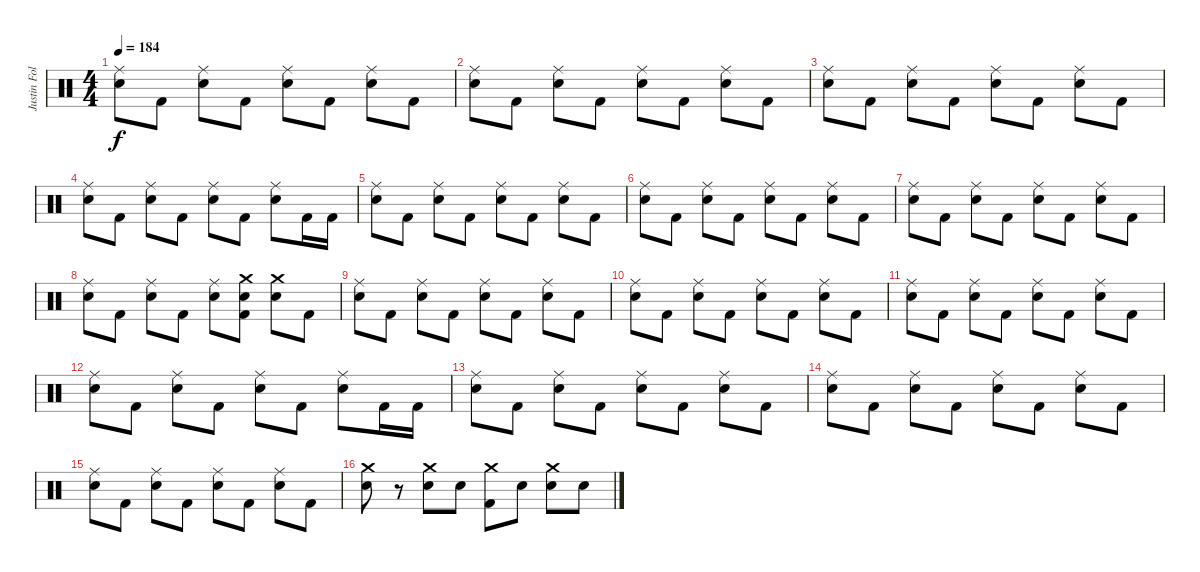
\track ("Justin Foley" "Justin Fol") {instrument percussion}
\staff {score}
\articulation defaults
\ts (4 4)
\tempo 184
\clef neutral
\ks c
("Ride (middle)" "Electric Snare (hit)").8{dy f} "Kick (hit) 2".8 ("Ride (middle)" "Electric Snare (hit)").8 "Kick (hit) 2".8 ("Ride (middle)" "Electric Snare (hit)").8 "Kick (hit) 2".8 ("Ride (middle)" "Electric Snare (hit)").8 "Kick (hit) 2".8 |
("Ride (middle)" "Electric Snare (hit)").8 "Kick (hit) 2".8 ("Ride (middle)" "Electric Snare (hit)").8 "Kick (hit) 2".8 ("Ride (middle)" "Electric Snare (hit)").8 "Kick (hit) 2".8 ("Ride (middle)" "Electric Snare (hit)").8 "Kick (hit) 2".8 |
("Ride (middle)" "Electric Snare (hit)").8 "Kick (hit) 2".8 ("Ride (middle)" "Electric Snare (hit)").8 "Kick (hit) 2".8 ("Ride (middle)" "Electric Snare (hit)").8 "Kick (hit) 2".8 ("Ride (middle)" "Electric Snare (hit)").8 "Kick (hit) 2".8 |
("Ride (middle)" "Electric Snare (hit)").8 "Kick (hit) 2".8 ("Ride (middle)" "Electric Snare (hit)").8 "Kick (hit) 2".8 ("Ride (middle)" "Electric Snare (hit)").8 "Kick (hit) 2".8 ("Ride (middle)" "Electric Snare (hit)").8 "Kick (hit) 2".16 "Kick (hit) 2".16 |
("Ride (middle)" "Electric Snare (hit)").8 "Kick (hit) 2".8 ("Ride (middle)" "Electric Snare (hit)").8 "Kick (hit) 2".8 ("Ride (middle)" "Electric Snare (hit)").8 "Kick (hit) 2".8 ("Ride (middle)" "Electric Snare (hit)").8 "Kick (hit) 2".8 |
("Ride (middle)" "Electric Snare (hit)").8 "Kick (hit) 2".8 ("Ride (middle)" "Electric Snare (hit)").8 "Kick (hit) 2".8 ("Ride (middle)" "Electric Snare (hit)").8 "Kick (hit) 2".8 ("Ride (middle)" "Electric Snare (hit)").8 "Kick (hit) 2".8 |
("Ride (middle)" "Electric Snare (hit)").8 "Kick (hit) 2".8 ("Ride (middle)" "Electric Snare (hit)").8 "Kick (hit) 2".8 ("Ride (middle)" "Electric Snare (hit)").8 "Kick (hit) 2".8 ("Ride (middle)" "Electric Snare (hit)").8 "Kick (hit) 2".8 |
("Ride (middle)" "Electric Snare (hit)").8 "Kick (hit) 2".8 ("Ride (middle)" "Electric Snare (hit)").8 "Kick (hit) 2".8 ("Ride (middle)" "Electric Snare (hit)").8 ("Crash medium (hit)" "Electric Snare (hit)" "Kick (hit) 2").8 ("Crash medium (hit)" "Electric Snare (hit)").8 "Kick (hit) 2".8 |
("Ride (middle)" "Electric Snare (hit)").8 "Kick (hit) 2".8 ("Ride (middle)" "Electric Snare (hit)").8 "Kick (hit) 2".8 ("Ride (middle)" "Electric Snare (hit)").8 "Kick (hit) 2".8 ("Ride (middle)" "Electric Snare (hit)").8 "Kick (hit) 2".8 |
("Ride (middle)" "Electric Snare (hit)").8 "Kick (hit) 2".8 ("Ride (middle)" "Electric Snare (hit)").8 "Kick (hit) 2".8 ("Ride (middle)" "Electric Snare (hit)").8 "Kick (hit) 2".8 ("Ride (middle)" "Electric Snare (hit)").8 "Kick (hit) 2".8 |
("Ride (middle)" "Electric Snare (hit)").8 "Kick (hit) 2".8 ("Ride (middle)" "Electric Snare (hit)").8 "Kick (hit) 2".8 ("Ride (middle)" "Electric Snare (hit)").8 "Kick (hit) 2".8 ("Ride (middle)" "Electric Snare (hit)").8 "Kick (hit) 2".8 |
("Ride (middle)" "Electric Snare (hit)").8 "Kick (hit) 2".8 ("Ride (middle)" "Electric Snare (hit)").8 "Kick (hit) 2".8 ("Ride (middle)" "Electric Snare (hit)").8 "Kick (hit) 2".8 ("Ride (middle)" "Electric Snare (hit)").8 "Kick (hit) 2".16 "Kick (hit) 2".16 |
("Ride (middle)" "Electric Snare (hit)").8 "Kick (hit) 2".8 ("Ride (middle)" "Electric Snare (hit)").8 "Kick (hit) 2".8 ("Ride (middle)" "Electric Snare (hit)").8 "Kick (hit) 2".8 ("Ride (middle)" "Electric Snare (hit)").8 "Kick (hit) 2".8 |
("Ride (middle)" "Electric Snare (hit)").8 "Kick (hit) 2".8 ("Ride (middle)" "Electric Snare (hit)").8 "Kick (hit) 2".8 ("Ride (middle)" "Electric Snare (hit)").8 "Kick (hit) 2".8 ("Ride (middle)" "Electric Snare (hit)").8 "Kick (hit) 2".8 |
("Ride (middle)" "Electric Snare (hit)").8 "Kick (hit) 2".8 ("Ride (middle)" "Electric Snare (hit)").8 "Kick (hit) 2".8 ("Ride (middle)" "Electric Snare (hit)").8 "Kick (hit) 2".8 ("Ride (middle)" "Electric Snare (hit)").8 "Kick (hit) 2".8 |
("Crash medium (hit)" "Electric Snare (hit)").8 r.8 ("Crash medium (hit)" "Electric Snare (hit)").8 "Electric Snare (hit)".8 ("Crash medium (hit)" "Kick (hit) 2").8 "Electric Snare (hit)".8 ("Crash medium (hit)" "Electric Snare (hit)").8 "Electric Snare (hit)".8
